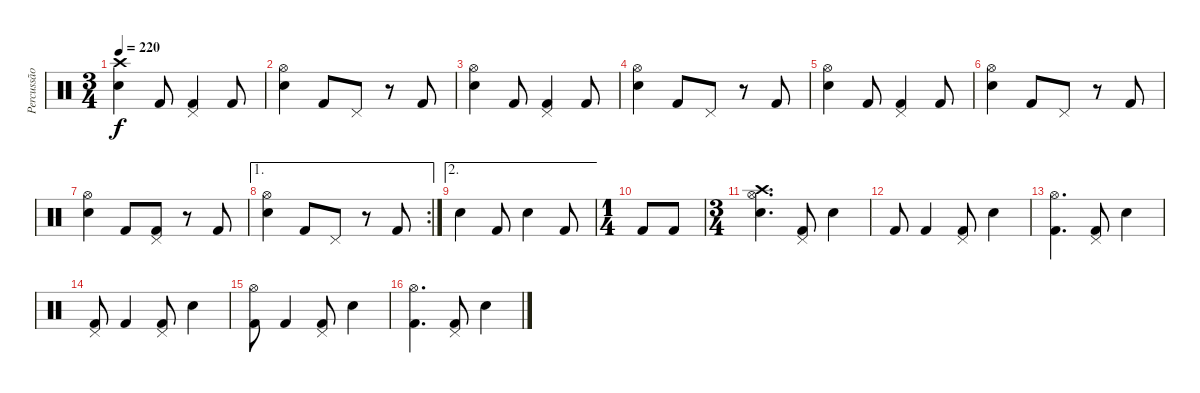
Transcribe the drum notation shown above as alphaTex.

\track ("Percussão" "Percussão") {instrument percussion}
\staff {score}
\articulation defaults
\ts (3 4)
\tempo 220
\clef neutral
\ks c
("Crash high (hit)" "Snare (hit) 2").4{dy f} "Kick (hit) 2".8 ("Pedal Hi-Hat (hit)" "Kick (hit) 2").4 "Kick (hit) 2".8 |
("Hi-Hat (open)" "Snare (hit) 2").4 "Kick (hit) 2".8 "Pedal Hi-Hat (hit)".8 r.8 "Kick (hit) 2".8 |
("Hi-Hat (open)" "Snare (hit) 2").4 "Kick (hit) 2".8 ("Pedal Hi-Hat (hit)" "Kick (hit) 2").4 "Kick (hit) 2".8 |
("Hi-Hat (open)" "Snare (hit) 2").4 "Kick (hit) 2".8 "Pedal Hi-Hat (hit)".8 r.8 "Kick (hit) 2".8 |
("Hi-Hat (open)" "Snare (hit) 2").4 "Kick (hit) 2".8 ("Pedal Hi-Hat (hit)" "Kick (hit) 2").4 "Kick (hit) 2".8 |
("Hi-Hat (open)" "Snare (hit) 2").4 "Kick (hit) 2".8 "Pedal Hi-Hat (hit)".8 r.8 "Kick (hit) 2".8 |
("Hi-Hat (open)" "Snare (hit) 2").4 "Kick (hit) 2".8 ("Pedal Hi-Hat (hit)" "Kick (hit) 2").8 r.8 "Kick (hit) 2".8 |
\ae 1
\rc 2
("Hi-Hat (open)" "Snare (hit) 2").4 "Kick (hit) 2".8 "Pedal Hi-Hat (hit)".8 r.8 "Kick (hit) 2".8 |
\ae 2 "Snare (hit) 2".4 "Kick (hit) 2".8 "Snare (hit) 2".4 "Kick (hit) 2".8
|
\ts (1 4)
"Kick (hit) 2".8 "Kick (hit) 2".8 |
\ts (3 4)
("Hi-Hat (open)" "Snare (hit) 2" "Crash high (hit)").4{d} ("Pedal Hi-Hat (hit)" "Kick (hit) 2").8 "Snare (hit) 2".4 |
"Kick (hit) 2".8 "Kick (hit) 2".4 ("Pedal Hi-Hat (hit)" "Kick (hit) 2").8 "Snare (hit) 2".4 |
("Hi-Hat (open)" "Kick (hit) 2").4{d} ("Pedal Hi-Hat (hit)" "Kick (hit) 2").8 "Snare (hit) 2".4 |
("Pedal Hi-Hat (hit)" "Kick (hit) 2").8 "Kick (hit) 2".4 ("Pedal Hi-Hat (hit)" "Kick (hit) 2").8 "Snare (hit) 2".4 |
("Hi-Hat (open)" "Kick (hit) 2").8 "Kick (hit) 2".4 ("Pedal Hi-Hat (hit)" "Kick (hit) 2").8 "Snare (hit) 2".4 |
("Hi-Hat (open)" "Kick (hit) 2").4{d} ("Pedal Hi-Hat (hit)" "Kick (hit) 2").8 "Snare (hit) 2".4
